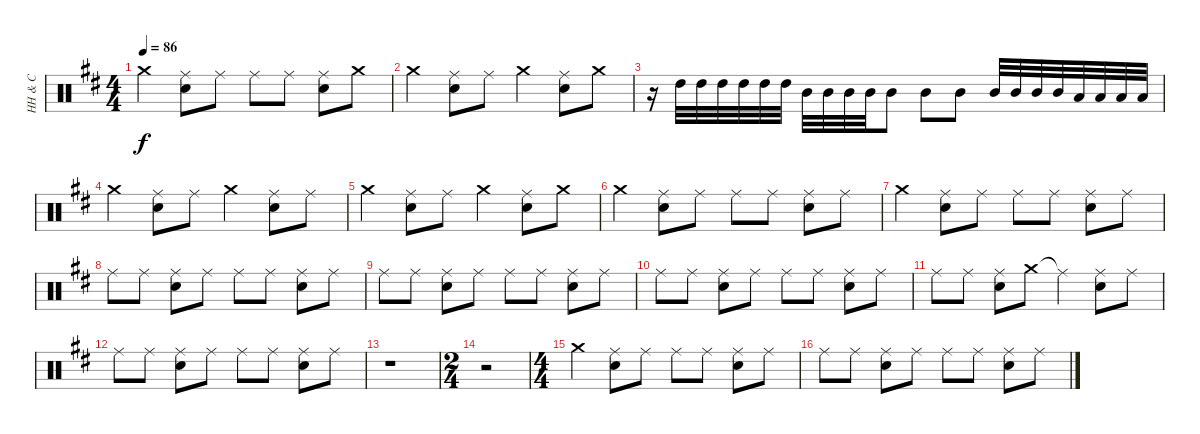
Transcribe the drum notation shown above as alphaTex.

\track ("HH & C" "HH & C") {instrument percussion}
\staff {score}
\articulation defaults
\ts (4 4)
\tempo 86
\clef neutral
\ks d "Crash medium (hit)".4{dy f}
("Ride (middle)" "Hand Clap (hit)").8 "Ride (middle)".8 "Ride (middle)".8 "Ride (middle)".8 ("Ride (middle)" "Hand Clap (hit)").8 "Crash medium (hit)".8 |
"Crash medium (hit)".4 ("Ride (middle)" "Hand Clap (hit)").8 "Ride (middle)".8 "Crash medium (hit)".4 ("Ride (middle)" "Hand Clap (hit)").8 "Crash medium (hit)".8 |
r.16 "High Tom (hit)".32 "High Tom (hit)".32 "High Tom (hit)".32 "High Tom (hit)".32 "High Tom (hit)".32 "High Tom (hit)".32 "Mid Tom (hit)".32 "Mid Tom (hit)".32 "Mid Tom (hit)".32 "Mid Tom (hit)".32 "Mid Tom (hit)".8 "Mid Tom (hit)".8 "Mid Tom (hit)".8 "Mid Tom (hit)".32 "Mid Tom (hit)".32 "Mid Tom (hit)".32 "Mid Tom (hit)".32 "Low Tom (hit)".32 "Low Tom (hit)".32 "Low Tom (hit)".32 "Low Tom (hit)".32 |
"Crash medium (hit)".4 ("Ride (middle)" "Hand Clap (hit)").8 "Ride (middle)".8 "Crash medium (hit)".4 ("Ride (middle)" "Hand Clap (hit)").8 "Ride (middle)".8 |
"Crash medium (hit)".4 ("Ride (middle)" "Hand Clap (hit)").8 "Ride (middle)".8 "Crash medium (hit)".4 ("Ride (middle)" "Hand Clap (hit)").8 "Crash medium (hit)".8 |
"Crash medium (hit)".4 ("Ride (middle)" "Hand Clap (hit)").8 "Ride (middle)".8 "Ride (middle)".8 "Ride (middle)".8 ("Ride (middle)" "Hand Clap (hit)").8 "Ride (middle)".8 |
"Crash medium (hit)".4 ("Ride (middle)" "Hand Clap (hit)").8 "Ride (middle)".8 "Ride (middle)".8 "Ride (middle)".8 ("Ride (middle)" "Hand Clap (hit)").8 "Ride (middle)".8 |
"Ride (middle)".8 "Ride (middle)".8 ("Ride (middle)" "Hand Clap (hit)").8 "Ride (middle)".8 "Ride (middle)".8 "Ride (middle)".8 ("Ride (middle)" "Hand Clap (hit)").8 "Ride (middle)".8 |
"Ride (middle)".8 "Ride (middle)".8 ("Ride (middle)" "Hand Clap (hit)").8 "Ride (middle)".8 "Ride (middle)".8 "Ride (middle)".8 ("Ride (middle)" "Hand Clap (hit)").8 "Ride (middle)".8 |
"Ride (middle)".8 "Ride (middle)".8 ("Ride (middle)" "Hand Clap (hit)").8 "Ride (middle)".8 "Ride (middle)".8 "Ride (middle)".8 ("Ride (middle)" "Hand Clap (hit)").8 "Ride (middle)".8 |
"Ride (middle)".8 "Ride (middle)".8 ("Ride (middle)" "Hand Clap (hit)").8 "Crash medium (hit)".8 "Ride (middle)"{t}.4 ("Ride (middle)" "Hand Clap (hit)").8 "Ride (middle)".8 |
"Ride (middle)".8 "Ride (middle)".8 ("Ride (middle)" "Hand Clap (hit)").8 "Ride (middle)".8 "Ride (middle)".8 "Ride (middle)".8 ("Ride (middle)" "Hand Clap (hit)").8 "Ride (middle)".8 |
r.1 |
\ts (2 4)
r.2 |
\ts (4 4)
"Crash medium (hit)".4 ("Ride (middle)" "Hand Clap (hit)").8 "Ride (middle)".8 "Ride (middle)".8 "Ride (middle)".8 ("Ride (middle)" "Hand Clap (hit)").8 "Ride (middle)".8 |
"Ride (middle)".8 "Ride (middle)".8 ("Ride (middle)" "Hand Clap (hit)").8 "Ride (middle)".8 "Ride (middle)".8 "Ride (middle)".8 ("Ride (middle)" "Hand Clap (hit)").8 "Ride (middle)".8
